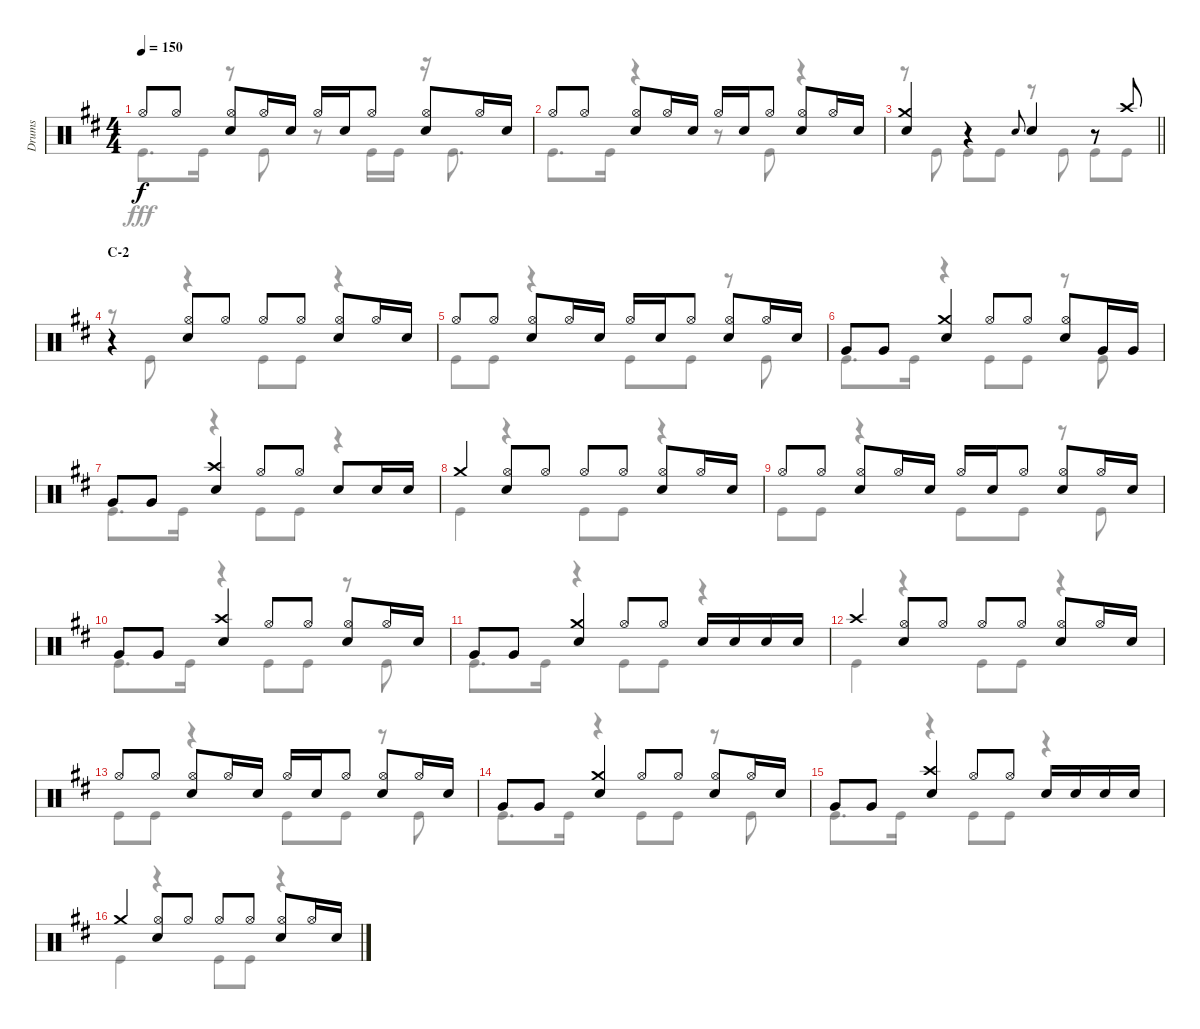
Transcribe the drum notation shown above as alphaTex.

\track ("Drums" "Drums") {instrument percussion}
\staff {score}
\articulation defaults
\voice
\ts (4 4)
\tempo 150
\clef neutral
\ks d "Hi-Hat (open)".8{dy f} "Hi-Hat (open)".8
("Hi-Hat (open)" "Snare (hit) 2").8 "Hi-Hat (open)".16 "Snare (hit) 2".16 "Hi-Hat (open)".16 "Snare (hit) 2".16 "Hi-Hat (open)".8 ("Hi-Hat (open)" "Snare (hit) 2").8 "Hi-Hat (open)".16 "Snare (hit) 2".16 |
"Hi-Hat (open)".8 "Hi-Hat (open)".8 ("Hi-Hat (open)" "Snare (hit) 2").8 "Hi-Hat (open)".16 "Snare (hit) 2".16 "Hi-Hat (open)".16 "Snare (hit) 2".16 "Hi-Hat (open)".8 ("Hi-Hat (open)" "Snare (hit) 2").8 "Hi-Hat (open)".16 "Snare (hit) 2".16 |
\barLineRight lightlight
("Crash medium (hit)" "Snare (hit) 2").4 r.4 "Snare (hit) 2".8{gr onbeat} "Snare (hit) 2".4 r.8 "Crash high (hit)".8 |
\section ("" "C-2")
r.4 ("Hi-Hat (open)" "Snare (hit) 2").8 "Hi-Hat (open)".8 "Hi-Hat (open)".8 "Hi-Hat (open)".8 ("Hi-Hat (open)" "Snare (hit) 2").8 "Hi-Hat (open)".16 "Snare (hit) 2".16 |
"Hi-Hat (open)".8 "Hi-Hat (open)".8 ("Hi-Hat (open)" "Snare (hit) 2").8 "Hi-Hat (open)".16 "Snare (hit) 2".16 "Hi-Hat (open)".16 "Snare (hit) 2".16 "Hi-Hat (open)".8 ("Hi-Hat (open)" "Snare (hit) 2").8 "Hi-Hat (open)".16 "Snare (hit) 2".16 |
"Very Low Tom (hit)".8 "Very Low Tom (hit)".8 ("Crash medium (hit)" "Snare (hit) 2").4 "Hi-Hat (open)".8 "Hi-Hat (open)".8 ("Hi-Hat (open)" "Snare (hit) 2").8 "Very Low Tom (hit)".16 "Very Low Tom (hit)".16 |
"Very Low Tom (hit)".8 "Very Low Tom (hit)".8 ("Crash high (hit)" "Snare (hit) 2").4 "Hi-Hat (open)".8 "Hi-Hat (open)".8 "Snare (hit) 2".8 "Snare (hit) 2".16 "Snare (hit) 2".16 |
"Crash medium (hit)".4 ("Hi-Hat (open)" "Snare (hit) 2").8 "Hi-Hat (open)".8 "Hi-Hat (open)".8 "Hi-Hat (open)".8 ("Hi-Hat (open)" "Snare (hit) 2").8 "Hi-Hat (open)".16 "Snare (hit) 2".16 |
"Hi-Hat (open)".8 "Hi-Hat (open)".8 ("Hi-Hat (open)" "Snare (hit) 2").8 "Hi-Hat (open)".16 "Snare (hit) 2".16 "Hi-Hat (open)".16 "Snare (hit) 2".16 "Hi-Hat (open)".8 ("Hi-Hat (open)" "Snare (hit) 2").8 "Hi-Hat (open)".16 "Snare (hit) 2".16 |
"Very Low Tom (hit)".8 "Very Low Tom (hit)".8 ("Crash high (hit)" "Snare (hit) 2").4 "Hi-Hat (open)".8 "Hi-Hat (open)".8 ("Hi-Hat (open)" "Snare (hit) 2").8 "Hi-Hat (open)".16 "Snare (hit) 2".16 |
"Very Low Tom (hit)".8 "Very Low Tom (hit)".8 ("Crash medium (hit)" "Snare (hit) 2").4 "Hi-Hat (open)".8 "Hi-Hat (open)".8 "Snare (hit) 2".16 "Snare (hit) 2".16 "Snare (hit) 2".16 "Snare (hit) 2".16 |
"Crash high (hit)".4 ("Hi-Hat (open)" "Snare (hit) 2").8 "Hi-Hat (open)".8 "Hi-Hat (open)".8 "Hi-Hat (open)".8 ("Hi-Hat (open)" "Snare (hit) 2").8 "Hi-Hat (open)".16 "Snare (hit) 2".16 |
"Hi-Hat (open)".8 "Hi-Hat (open)".8 ("Hi-Hat (open)" "Snare (hit) 2").8 "Hi-Hat (open)".16 "Snare (hit) 2".16 "Hi-Hat (open)".16 "Snare (hit) 2".16 "Hi-Hat (open)".8 ("Hi-Hat (open)" "Snare (hit) 2").8 "Hi-Hat (open)".16 "Snare (hit) 2".16 |
"Very Low Tom (hit)".8 "Very Low Tom (hit)".8 ("Crash medium (hit)" "Snare (hit) 2").4 "Hi-Hat (open)".8 "Hi-Hat (open)".8 ("Hi-Hat (open)" "Snare (hit) 2").8 "Hi-Hat (open)".16 "Snare (hit) 2".16 |
"Very Low Tom (hit)".8 "Very Low Tom (hit)".8 ("Crash high (hit)" "Snare (hit) 2").4 "Hi-Hat (open)".8 "Hi-Hat (open)".8 "Snare (hit) 2".16 "Snare (hit) 2".16 "Snare (hit) 2".16 "Snare (hit) 2".16 |
"Crash medium (hit)".4 ("Hi-Hat (open)" "Snare (hit) 2").8 "Hi-Hat (open)".8 "Hi-Hat (open)".8 "Hi-Hat (open)".8 ("Hi-Hat (open)" "Snare (hit) 2").8 "Hi-Hat (open)".16 "Snare (hit) 2".16
\voice
\clef neutral
\ottava regular
\simile none
\ks d "Kick (hit)".8{d dy fff} "Kick (hit)".16
r.8 "Kick (hit)".8 r.8 "Kick (hit)".16 "Kick (hit)".16 r.16 "Kick (hit)".8{d} |
"Kick (hit)".8{d} "Kick (hit)".16 r.4 r.8 "Kick (hit)".8 r.4 |
\barLineRight lightlight
r.8 "Kick (hit)".8 "Kick (hit)".8 "Kick (hit)".8 r.8 "Kick (hit)".8 "Kick (hit)".8 "Kick (hit)".8 |
r.8 "Kick (hit)".8 r.4 "Kick (hit)".8 "Kick (hit)".8 r.4 |
"Kick (hit)".8 "Kick (hit)".8 r.4 "Kick (hit)".8 "Kick (hit)".8 r.8 "Kick (hit)".8 |
"Kick (hit)".8{d} "Kick (hit)".16 r.4 "Kick (hit)".8 "Kick (hit)".8 r.8 "Kick (hit)".8 |
"Kick (hit)".8{d} "Kick (hit)".16 r.4 "Kick (hit)".8 "Kick (hit)".8 r.4 |
"Kick (hit)".4 r.4 "Kick (hit)".8 "Kick (hit)".8 r.4 |
"Kick (hit)".8 "Kick (hit)".8 r.4 "Kick (hit)".8 "Kick (hit)".8 r.8 "Kick (hit)".8 |
"Kick (hit)".8{d} "Kick (hit)".16 r.4 "Kick (hit)".8 "Kick (hit)".8 r.8 "Kick (hit)".8 |
"Kick (hit)".8{d} "Kick (hit)".16 r.4 "Kick (hit)".8 "Kick (hit)".8 r.4 |
"Kick (hit)".4 r.4 "Kick (hit)".8 "Kick (hit)".8 r.4 |
"Kick (hit)".8 "Kick (hit)".8 r.4 "Kick (hit)".8 "Kick (hit)".8 r.8 "Kick (hit)".8 |
"Kick (hit)".8{d} "Kick (hit)".16 r.4 "Kick (hit)".8 "Kick (hit)".8 r.8 "Kick (hit)".8 |
"Kick (hit)".8{d} "Kick (hit)".16 r.4 "Kick (hit)".8 "Kick (hit)".8 r.4 |
"Kick (hit)".4 r.4 "Kick (hit)".8 "Kick (hit)".8 r.4
